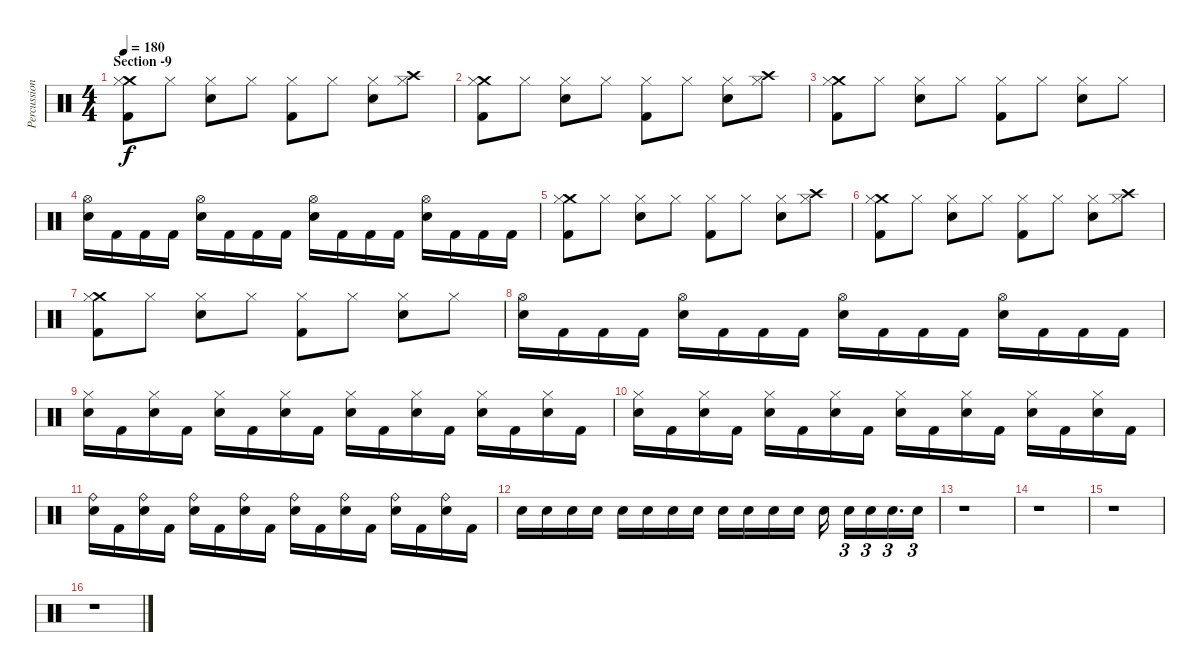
\track ("Percussion" "Percussion") {instrument percussion}
\staff {score}
\articulation defaults
\ts (4 4)
\section ("" "Section -9")
\tempo 180
\clef neutral
\ks c
("Crash medium (hit)" "Kick (hit) 2" "Hi-Hat (closed)").8{dy f} "Hi-Hat (closed)".8 ("Snare (hit) 2" "Hi-Hat (closed)").8 "Hi-Hat (closed)".8 ("Kick (hit) 2" "Hi-Hat (closed)").8 "Hi-Hat (closed)".8 ("Snare (hit) 2" "Hi-Hat (closed)").8 ("Crash high (hit)" "Hi-Hat (closed)").8 |
("Crash medium (hit)" "Kick (hit) 2" "Hi-Hat (closed)").8 "Hi-Hat (closed)".8 ("Snare (hit) 2" "Hi-Hat (closed)").8 "Hi-Hat (closed)".8 ("Kick (hit) 2" "Hi-Hat (closed)").8 "Hi-Hat (closed)".8 ("Snare (hit) 2" "Hi-Hat (closed)").8 ("Crash high (hit)" "Hi-Hat (closed)").8 |
("Crash medium (hit)" "Kick (hit) 2" "Hi-Hat (closed)").8 "Hi-Hat (closed)".8 ("Snare (hit) 2" "Hi-Hat (closed)").8 "Hi-Hat (closed)".8 ("Kick (hit) 2" "Hi-Hat (closed)").8 "Hi-Hat (closed)".8 ("Snare (hit) 2" "Hi-Hat (closed)").8 "Hi-Hat (closed)".8 |
("Hi-Hat (open)" "Snare (hit) 2").16 "Kick (hit) 2".16 "Kick (hit) 2".16 "Kick (hit) 2".16 ("Hi-Hat (open)" "Snare (hit) 2").16 "Kick (hit) 2".16 "Kick (hit) 2".16 "Kick (hit) 2".16 ("Hi-Hat (open)" "Snare (hit) 2").16 "Kick (hit) 2".16 "Kick (hit) 2".16 "Kick (hit) 2".16 ("Hi-Hat (open)" "Snare (hit) 2").16 "Kick (hit) 2".16 "Kick (hit) 2".16 "Kick (hit) 2".16 |
("Crash medium (hit)" "Kick (hit) 2" "Hi-Hat (closed)").8 "Hi-Hat (closed)".8 ("Snare (hit) 2" "Hi-Hat (closed)").8 "Hi-Hat (closed)".8 ("Kick (hit) 2" "Hi-Hat (closed)").8 "Hi-Hat (closed)".8 ("Snare (hit) 2" "Hi-Hat (closed)").8 ("Crash high (hit)" "Hi-Hat (closed)").8 |
("Crash medium (hit)" "Kick (hit) 2" "Hi-Hat (closed)").8 "Hi-Hat (closed)".8 ("Snare (hit) 2" "Hi-Hat (closed)").8 "Hi-Hat (closed)".8 ("Kick (hit) 2" "Hi-Hat (closed)").8 "Hi-Hat (closed)".8 ("Snare (hit) 2" "Hi-Hat (closed)").8 ("Crash high (hit)" "Hi-Hat (closed)").8 |
("Crash medium (hit)" "Kick (hit) 2" "Hi-Hat (closed)").8 "Hi-Hat (closed)".8 ("Snare (hit) 2" "Hi-Hat (closed)").8 "Hi-Hat (closed)".8 ("Kick (hit) 2" "Hi-Hat (closed)").8 "Hi-Hat (closed)".8 ("Snare (hit) 2" "Hi-Hat (closed)").8 "Hi-Hat (closed)".8 |
("Hi-Hat (open)" "Snare (hit) 2").16 "Kick (hit) 2".16 "Kick (hit) 2".16 "Kick (hit) 2".16 ("Hi-Hat (open)" "Snare (hit) 2").16 "Kick (hit) 2".16 "Kick (hit) 2".16 "Kick (hit) 2".16 ("Hi-Hat (open)" "Snare (hit) 2").16 "Kick (hit) 2".16 "Kick (hit) 2".16 "Kick (hit) 2".16 ("Hi-Hat (open)" "Snare (hit) 2").16 "Kick (hit) 2".16 "Kick (hit) 2".16 "Kick (hit) 2".16 |
("Hi-Hat (closed)" "Snare (hit) 2").16 "Kick (hit) 2".16 ("Hi-Hat (closed)" "Snare (hit) 2").16 "Kick (hit) 2".16 ("Hi-Hat (closed)" "Snare (hit) 2").16 "Kick (hit) 2".16 ("Hi-Hat (closed)" "Snare (hit) 2").16 "Kick (hit) 2".16 ("Hi-Hat (closed)" "Snare (hit) 2").16 "Kick (hit) 2".16 ("Hi-Hat (closed)" "Snare (hit) 2").16 "Kick (hit) 2".16 ("Hi-Hat (closed)" "Snare (hit) 2").16 "Kick (hit) 2".16 ("Hi-Hat (closed)" "Snare (hit) 2").16 "Kick (hit) 2".16 |
("Hi-Hat (closed)" "Snare (hit) 2").16 "Kick (hit) 2".16 ("Hi-Hat (closed)" "Snare (hit) 2").16 "Kick (hit) 2".16 ("Hi-Hat (closed)" "Snare (hit) 2").16 "Kick (hit) 2".16 ("Hi-Hat (closed)" "Snare (hit) 2").16 "Kick (hit) 2".16 ("Hi-Hat (closed)" "Snare (hit) 2").16 "Kick (hit) 2".16 ("Hi-Hat (closed)" "Snare (hit) 2").16 "Kick (hit) 2".16 ("Hi-Hat (closed)" "Snare (hit) 2").16 "Kick (hit) 2".16 ("Hi-Hat (closed)" "Snare (hit) 2").16 "Kick (hit) 2".16 |
("Ride (bell)" "Snare (hit) 2").16 "Kick (hit) 2".16 ("Ride (bell)" "Snare (hit) 2").16 "Kick (hit) 2".16 ("Ride (bell)" "Snare (hit) 2").16 "Kick (hit) 2".16 ("Ride (bell)" "Snare (hit) 2").16 "Kick (hit) 2".16 ("Ride (bell)" "Snare (hit) 2").16 "Kick (hit) 2".16 ("Ride (bell)" "Snare (hit) 2").16 "Kick (hit) 2".16 ("Ride (bell)" "Snare (hit) 2").16 "Kick (hit) 2".16 ("Ride (bell)" "Snare (hit) 2").16 "Kick (hit) 2".16 |
"Snare (hit) 2".16 "Snare (hit) 2".16 "Snare (hit) 2".16 "Snare (hit) 2".16 "Snare (hit) 2".16 "Snare (hit) 2".16 "Snare (hit) 2".16 "Snare (hit) 2".16 "Snare (hit) 2".16 "Snare (hit) 2".16 "Snare (hit) 2".16 "Snare (hit) 2".16 "Snare (hit) 2".16 "Snare (hit) 2".16{tu (3 2)} "Snare (hit) 2".16{tu (3 2)} "Snare (hit) 2".16{d tu (3 2)} "Snare (hit) 2".16{tu (3 2)} |
r.1 |
r.1 |
r.1 |
r.1
